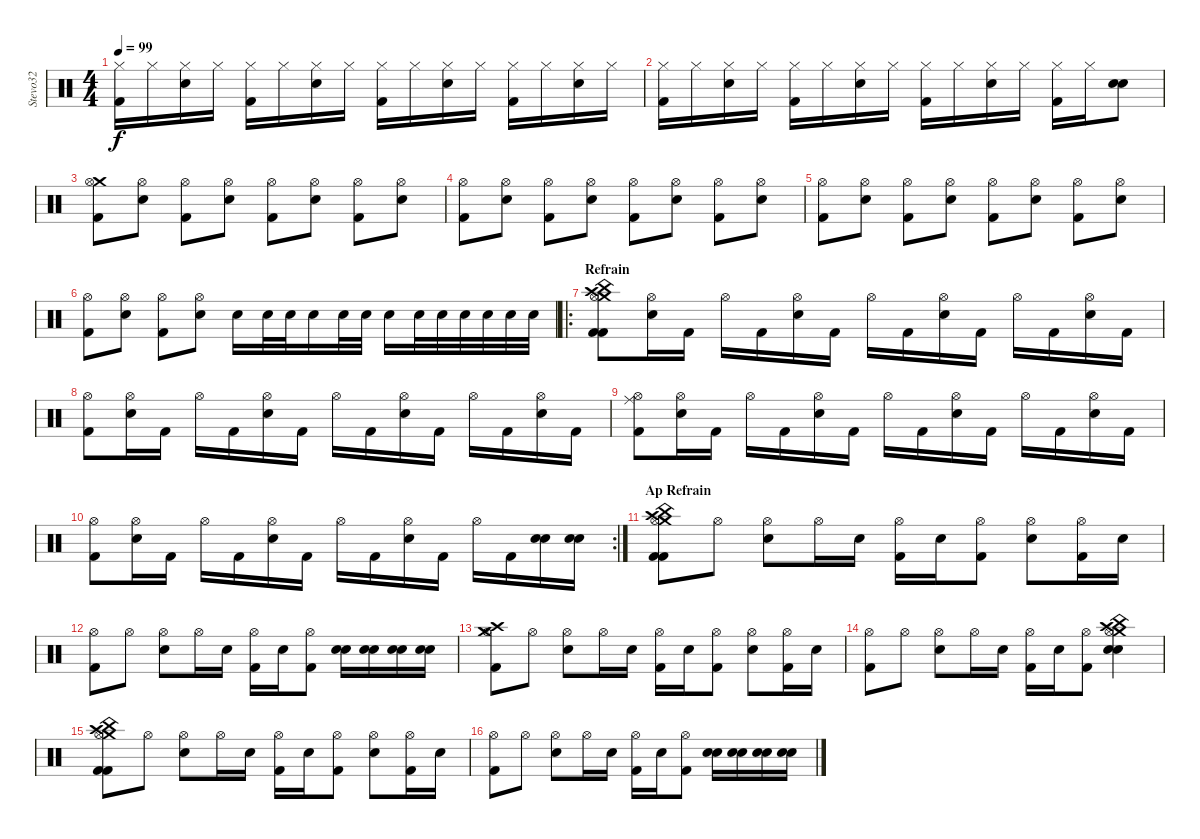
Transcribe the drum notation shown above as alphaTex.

\track ("Stevo32" "Stevo32") {instrument percussion}
\staff {score}
\articulation defaults
\ts (4 4)
\tempo 99
\clef neutral
\ks c
("Hi-Hat (closed)" "Kick (hit) 2").16{dy f} "Hi-Hat (closed)".16 ("Hi-Hat (closed)" "Electric Snare (hit)").16 "Hi-Hat (closed)".16 ("Hi-Hat (closed)" "Kick (hit) 2").16 "Hi-Hat (closed)".16 ("Hi-Hat (closed)" "Electric Snare (hit)").16 "Hi-Hat (closed)".16 ("Hi-Hat (closed)" "Kick (hit) 2").16 "Hi-Hat (closed)".16 ("Hi-Hat (closed)" "Electric Snare (hit)").16 "Hi-Hat (closed)".16 ("Hi-Hat (closed)" "Kick (hit) 2").16 "Hi-Hat (closed)".16 ("Hi-Hat (closed)" "Electric Snare (hit)").16 "Hi-Hat (closed)".16 |
("Hi-Hat (closed)" "Kick (hit) 2").16 "Hi-Hat (closed)".16 ("Hi-Hat (closed)" "Electric Snare (hit)").16 "Hi-Hat (closed)".16 ("Hi-Hat (closed)" "Kick (hit) 2").16 "Hi-Hat (closed)".16 ("Hi-Hat (closed)" "Electric Snare (hit)").16 "Hi-Hat (closed)".16 ("Hi-Hat (closed)" "Kick (hit) 2").16 "Hi-Hat (closed)".16 ("Hi-Hat (closed)" "Electric Snare (hit)").16 "Hi-Hat (closed)".16 ("Hi-Hat (closed)" "Kick (hit) 2").16 "Hi-Hat (closed)".16 ("Electric Snare (hit)" "Electric Snare (hit)").8 |
("Crash medium (hit)" "Hi-Hat (open)" "Kick (hit) 2").8 ("Hi-Hat (open)" "Electric Snare (hit)").8 ("Hi-Hat (open)" "Kick (hit) 2").8 ("Hi-Hat (open)" "Electric Snare (hit)").8 ("Hi-Hat (open)" "Kick (hit) 2").8 ("Hi-Hat (open)" "Electric Snare (hit)").8 ("Hi-Hat (open)" "Kick (hit) 2").8 ("Hi-Hat (open)" "Electric Snare (hit)").8 |
("Hi-Hat (open)" "Kick (hit) 2").8 ("Hi-Hat (open)" "Electric Snare (hit)").8 ("Hi-Hat (open)" "Kick (hit) 2").8 ("Hi-Hat (open)" "Electric Snare (hit)").8 ("Hi-Hat (open)" "Kick (hit) 2").8 ("Hi-Hat (open)" "Electric Snare (hit)").8 ("Hi-Hat (open)" "Kick (hit) 2").8 ("Hi-Hat (open)" "Electric Snare (hit)").8 |
("Hi-Hat (open)" "Kick (hit) 2").8 ("Hi-Hat (open)" "Electric Snare (hit)").8 ("Hi-Hat (open)" "Kick (hit) 2").8 ("Hi-Hat (open)" "Electric Snare (hit)").8 ("Hi-Hat (open)" "Kick (hit) 2").8 ("Hi-Hat (open)" "Electric Snare (hit)").8 ("Hi-Hat (open)" "Kick (hit) 2").8 ("Hi-Hat (open)" "Electric Snare (hit)").8 |
("Hi-Hat (open)" "Kick (hit) 2").8 ("Hi-Hat (open)" "Electric Snare (hit)").8 ("Hi-Hat (open)" "Kick (hit) 2").8 ("Hi-Hat (open)" "Electric Snare (hit)").8 "Electric Snare (hit)".16 "Electric Snare (hit)".32 "Electric Snare (hit)".32 "Electric Snare (hit)".16 "Electric Snare (hit)".32 "Electric Snare (hit)".32 "Electric Snare (hit)".16 "Electric Snare (hit)".32 "Electric Snare (hit)".32 "Electric Snare (hit)".32 "Electric Snare (hit)".32 "Electric Snare (hit)".32 "Electric Snare (hit)".32 |
\ro
\section ("" "Refrain")
("China (hit)" "Crash high (hit)" "Crash medium (hit)" "Hi-Hat (open)" "Kick (hit) 2" "Kick (hit) 2").8 ("Hi-Hat (open)" "Electric Snare (hit)").16 "Kick (hit) 2".16 "Hi-Hat (open)".16 "Kick (hit) 2".16 ("Hi-Hat (open)" "Electric Snare (hit)").16 "Kick (hit) 2".16 "Hi-Hat (open)".16 "Kick (hit) 2".16 ("Hi-Hat (open)" "Electric Snare (hit)").16 "Kick (hit) 2".16 "Hi-Hat (open)".16 "Kick (hit) 2".16 ("Hi-Hat (open)" "Electric Snare (hit)").16 "Kick (hit) 2".16 |
("Hi-Hat (open)" "Kick (hit) 2").8 ("Hi-Hat (open)" "Electric Snare (hit)").16 "Kick (hit) 2".16 "Hi-Hat (open)".16 "Kick (hit) 2".16 ("Hi-Hat (open)" "Electric Snare (hit)").16 "Kick (hit) 2".16 "Hi-Hat (open)".16 "Kick (hit) 2".16 ("Hi-Hat (open)" "Electric Snare (hit)").16 "Kick (hit) 2".16 "Hi-Hat (open)".16 "Kick (hit) 2".16 ("Hi-Hat (open)" "Electric Snare (hit)").16 "Kick (hit) 2".16 |
("Hi-Hat (open)" "Ride (middle)" "Kick (hit) 2").8 ("Hi-Hat (open)" "Electric Snare (hit)").16 "Kick (hit) 2".16 "Hi-Hat (open)".16 "Kick (hit) 2".16 ("Hi-Hat (open)" "Electric Snare (hit)").16 "Kick (hit) 2".16 "Hi-Hat (open)".16 "Kick (hit) 2".16 ("Hi-Hat (open)" "Electric Snare (hit)").16 "Kick (hit) 2".16 "Hi-Hat (open)".16 "Kick (hit) 2".16 ("Hi-Hat (open)" "Electric Snare (hit)").16 "Kick (hit) 2".16 |
\rc 2
("Hi-Hat (open)" "Kick (hit) 2").8 ("Hi-Hat (open)" "Electric Snare (hit)").16 "Kick (hit) 2".16 "Hi-Hat (open)".16 "Kick (hit) 2".16 ("Hi-Hat (open)" "Electric Snare (hit)").16 "Kick (hit) 2".16 "Hi-Hat (open)".16 "Kick (hit) 2".16 ("Hi-Hat (open)" "Electric Snare (hit)").16 "Kick (hit) 2".16 "Hi-Hat (open)".16 "Kick (hit) 2".16 ("Electric Snare (hit)" "Electric Snare (hit)").16 ("Electric Snare (hit)" "Electric Snare (hit)").16 |
\section ("" "Ap Refrain")
("China (hit)" "Crash medium (hit)" "Hi-Hat (open)" "Crash high (hit)" "Kick (hit) 2" "Kick (hit) 2").8 "Hi-Hat (open)".8 ("Hi-Hat (open)" "Electric Snare (hit)").8 "Hi-Hat (open)".16 "Electric Snare (hit)".16 ("Hi-Hat (open)" "Kick (hit) 2").16 "Electric Snare (hit)".16 ("Hi-Hat (open)" "Kick (hit) 2").8 ("Hi-Hat (open)" "Electric Snare (hit)").8 ("Hi-Hat (open)" "Kick (hit) 2").16 "Electric Snare (hit)".16 |
("Hi-Hat (open)" "Kick (hit) 2").8 "Hi-Hat (open)".8 ("Hi-Hat (open)" "Electric Snare (hit)").8 "Hi-Hat (open)".16 "Electric Snare (hit)".16 ("Hi-Hat (open)" "Kick (hit) 2").16 "Electric Snare (hit)".16 ("Hi-Hat (open)" "Kick (hit) 2").8 ("Electric Snare (hit)" "Electric Snare (hit)").16 ("Electric Snare (hit)" "Electric Snare (hit)").16 ("Electric Snare (hit)" "Electric Snare (hit)").16 ("Electric Snare (hit)" "Electric Snare (hit)").16 |
("Crash medium (hit)" "Hi-Hat (open)" "Crash high (hit)" "Kick (hit) 2").8 "Hi-Hat (open)".8 ("Hi-Hat (open)" "Electric Snare (hit)").8 "Hi-Hat (open)".16 "Electric Snare (hit)".16 ("Hi-Hat (open)" "Kick (hit) 2").16 "Electric Snare (hit)".16 ("Hi-Hat (open)" "Kick (hit) 2").8 ("Hi-Hat (open)" "Electric Snare (hit)").8 ("Hi-Hat (open)" "Kick (hit) 2").16 "Electric Snare (hit)".16 |
("Hi-Hat (open)" "Kick (hit) 2").8 "Hi-Hat (open)".8 ("Hi-Hat (open)" "Electric Snare (hit)").8 "Hi-Hat (open)".16 "Electric Snare (hit)".16 ("Hi-Hat (open)" "Kick (hit) 2").16 "Electric Snare (hit)".16 ("Hi-Hat (open)" "Kick (hit) 2").8 ("China (hit)" "Crash medium (hit)" "Crash high (hit)" "Hi-Hat (open)" "Electric Snare (hit)" "Electric Snare (hit)").4 |
("China (hit)" "Crash medium (hit)" "Hi-Hat (open)" "Crash high (hit)" "Kick (hit) 2" "Kick (hit) 2").8 "Hi-Hat (open)".8 ("Hi-Hat (open)" "Electric Snare (hit)").8 "Hi-Hat (open)".16 "Electric Snare (hit)".16 ("Hi-Hat (open)" "Kick (hit) 2").16 "Electric Snare (hit)".16 ("Hi-Hat (open)" "Kick (hit) 2").8 ("Hi-Hat (open)" "Electric Snare (hit)").8 ("Hi-Hat (open)" "Kick (hit) 2").16 "Electric Snare (hit)".16 |
("Hi-Hat (open)" "Kick (hit) 2").8 "Hi-Hat (open)".8 ("Hi-Hat (open)" "Electric Snare (hit)").8 "Hi-Hat (open)".16 "Electric Snare (hit)".16 ("Hi-Hat (open)" "Kick (hit) 2").16 "Electric Snare (hit)".16 ("Hi-Hat (open)" "Kick (hit) 2").8 ("Electric Snare (hit)" "Electric Snare (hit)").16 ("Electric Snare (hit)" "Electric Snare (hit)").16 ("Electric Snare (hit)" "Electric Snare (hit)").16 ("Electric Snare (hit)" "Electric Snare (hit)").16
